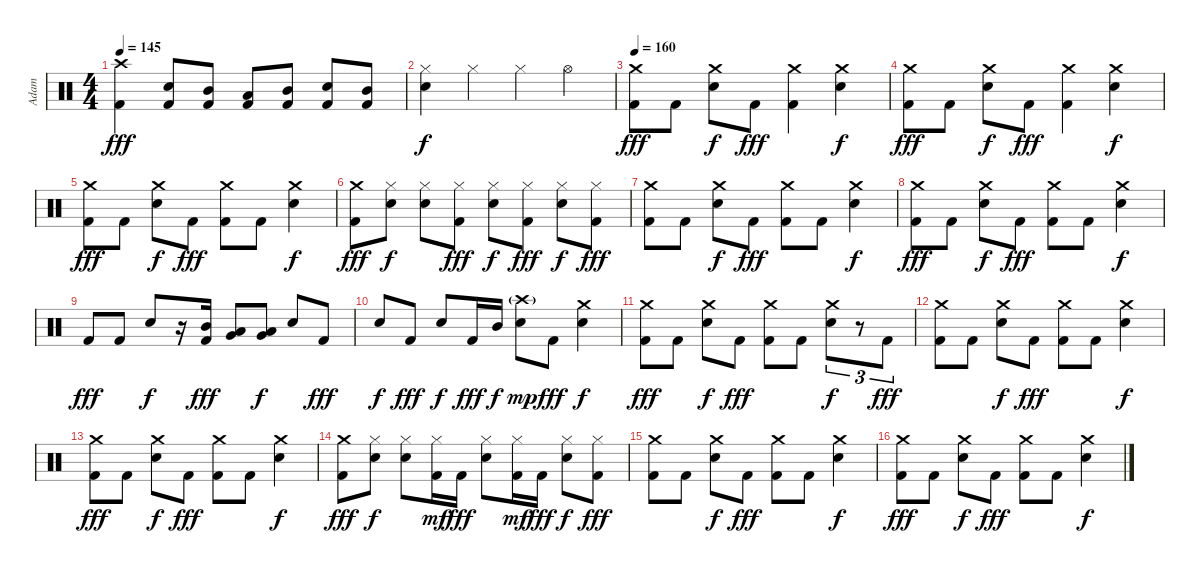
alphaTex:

\track ("Adam" "Adam") {instrument percussion}
\staff {score}
\articulation defaults
\ts (4 4)
\tempo 145
\clef neutral
\ks c
("Crash high (hit)" "Kick (hit) 2").4{dy fff} ("Electric Snare (hit)" "Kick (hit) 2").8 ("Mid Tom (hit)" "Kick (hit) 2").8 ("Low Floor Tom (hit)" "Kick (hit) 2").8 ("Mid Tom (hit)" "Kick (hit) 2").8 ("Electric Snare (hit)" "Kick (hit) 2").8 ("Mid Tom (hit)" "Kick (hit) 2").8 |
("Hi-Hat (closed)" "Electric Snare (hit)").4{dy f} "Hi-Hat (closed)".4 "Hi-Hat (closed)".4 "Hi-Hat (open)".4 |
\tempo 160
("Crash medium (hit)" "Kick (hit) 2").8{dy fff} "Kick (hit) 2".8 ("Crash medium (hit)" "Electric Snare (hit)").8{dy f} "Kick (hit) 2".8{dy fff} ("Crash medium (hit)" "Kick (hit) 2").4 ("Crash medium (hit)" "Electric Snare (hit)").4{dy f} |
("Crash medium (hit)" "Kick (hit) 2").8{dy fff} "Kick (hit) 2".8 ("Crash medium (hit)" "Electric Snare (hit)").8{dy f} "Kick (hit) 2".8{dy fff} ("Crash medium (hit)" "Kick (hit) 2").4 ("Crash medium (hit)" "Electric Snare (hit)").4{dy f} |
("Crash medium (hit)" "Kick (hit) 2").8{dy fff} "Kick (hit) 2".8 ("Crash medium (hit)" "Electric Snare (hit)").8{dy f} "Kick (hit) 2".8{dy fff} ("Crash medium (hit)" "Kick (hit) 2").8 "Kick (hit) 2".8 ("Crash medium (hit)" "Electric Snare (hit)").4{dy f} |
("Crash medium (hit)" "Kick (hit) 2").8{dy fff} ("Hi-Hat (closed)" "Electric Snare (hit)").8{dy f} ("Hi-Hat (closed)" "Electric Snare (hit)").8 ("Hi-Hat (closed)" "Kick (hit) 2").8{dy fff} ("Hi-Hat (closed)" "Electric Snare (hit)").8{dy f} ("Hi-Hat (closed)" "Kick (hit) 2").8{dy fff} ("Hi-Hat (closed)" "Electric Snare (hit)").8{dy f} ("Hi-Hat (closed)" "Kick (hit) 2").8{dy fff} |
("Crash medium (hit)" "Kick (hit) 2").8 "Kick (hit) 2".8 ("Crash medium (hit)" "Electric Snare (hit)").8{dy f} "Kick (hit) 2".8{dy fff} ("Crash medium (hit)" "Kick (hit) 2").8 "Kick (hit) 2".8 ("Crash medium (hit)" "Electric Snare (hit)").4{dy f} |
("Crash medium (hit)" "Kick (hit) 2").8{dy fff} "Kick (hit) 2".8 ("Crash medium (hit)" "Electric Snare (hit)").8{dy f} "Kick (hit) 2".8{dy fff} ("Crash medium (hit)" "Kick (hit) 2").8 "Kick (hit) 2".8 ("Crash medium (hit)" "Electric Snare (hit)").4{dy f} |
"Kick (hit) 2".8{dy fff} "Kick (hit) 2".8 "Electric Snare (hit)".8{dy f} r.16 ("Mid Tom (hit)" "Kick (hit) 2").16{dy fff} ("Low Tom (hit)" "Very Low Tom (hit)").8 ("Low Tom (hit)" "Very Low Tom (hit)").8{dy f} "Electric Snare (hit)".8 "Kick (hit) 2".8{dy fff} |
"Electric Snare (hit)".8{dy f} "Kick (hit) 2".8{dy fff} "Electric Snare (hit)".8{dy f} "Kick (hit) 2".16{dy fff} "Mid Tom (hit)".16{dy f} ("Crash high (hit)"{g} "Electric Snare (hit)").8{dy mp} "Kick (hit) 2".8{dy fff} ("Crash medium (hit)" "Electric Snare (hit)").4{dy f} |
("Crash medium (hit)" "Kick (hit) 2").8{dy fff} "Kick (hit) 2".8 ("Crash medium (hit)" "Electric Snare (hit)").8{dy f} "Kick (hit) 2".8{dy fff} ("Crash medium (hit)" "Kick (hit) 2").8 "Kick (hit) 2".8 ("Crash medium (hit)" "Electric Snare (hit)").8{tu (3 2) dy f} r.8{tu (3 2)} "Kick (hit) 2".8{tu (3 2) dy fff} |
("Crash medium (hit)" "Kick (hit) 2").8 "Kick (hit) 2".8 ("Crash medium (hit)" "Electric Snare (hit)").8{dy f} "Kick (hit) 2".8{dy fff} ("Crash medium (hit)" "Kick (hit) 2").8 "Kick (hit) 2".8 ("Crash medium (hit)" "Electric Snare (hit)").4{dy f} |
("Crash medium (hit)" "Kick (hit) 2").8{dy fff} "Kick (hit) 2".8 ("Crash medium (hit)" "Electric Snare (hit)").8{dy f} "Kick (hit) 2".8{dy fff} ("Crash medium (hit)" "Kick (hit) 2").8 "Kick (hit) 2".8 ("Crash medium (hit)" "Electric Snare (hit)").4{dy f} |
("Crash medium (hit)" "Kick (hit) 2").8{dy fff} ("Hi-Hat (closed)" "Electric Snare (hit)").8{dy f} ("Hi-Hat (closed)" "Electric Snare (hit)").8 ("Hi-Hat (closed)" "Kick (hit) 2").16{dy mf} "Kick (hit) 2".16{dy fff} ("Hi-Hat (closed)" "Electric Snare (hit)").8 ("Hi-Hat (closed)" "Kick (hit) 2").16{dy mf} "Kick (hit) 2".16{dy fff} ("Hi-Hat (closed)" "Electric Snare (hit)").8{dy f} ("Hi-Hat (closed)" "Kick (hit) 2").8{dy fff} |
("Crash medium (hit)" "Kick (hit) 2").8 "Kick (hit) 2".8 ("Crash medium (hit)" "Electric Snare (hit)").8{dy f} "Kick (hit) 2".8{dy fff} ("Crash medium (hit)" "Kick (hit) 2").8 "Kick (hit) 2".8 ("Crash medium (hit)" "Electric Snare (hit)").4{dy f} |
("Crash medium (hit)" "Kick (hit) 2").8{dy fff} "Kick (hit) 2".8 ("Crash medium (hit)" "Electric Snare (hit)").8{dy f} "Kick (hit) 2".8{dy fff} ("Crash medium (hit)" "Kick (hit) 2").8 "Kick (hit) 2".8 ("Crash medium (hit)" "Electric Snare (hit)").4{dy f}
